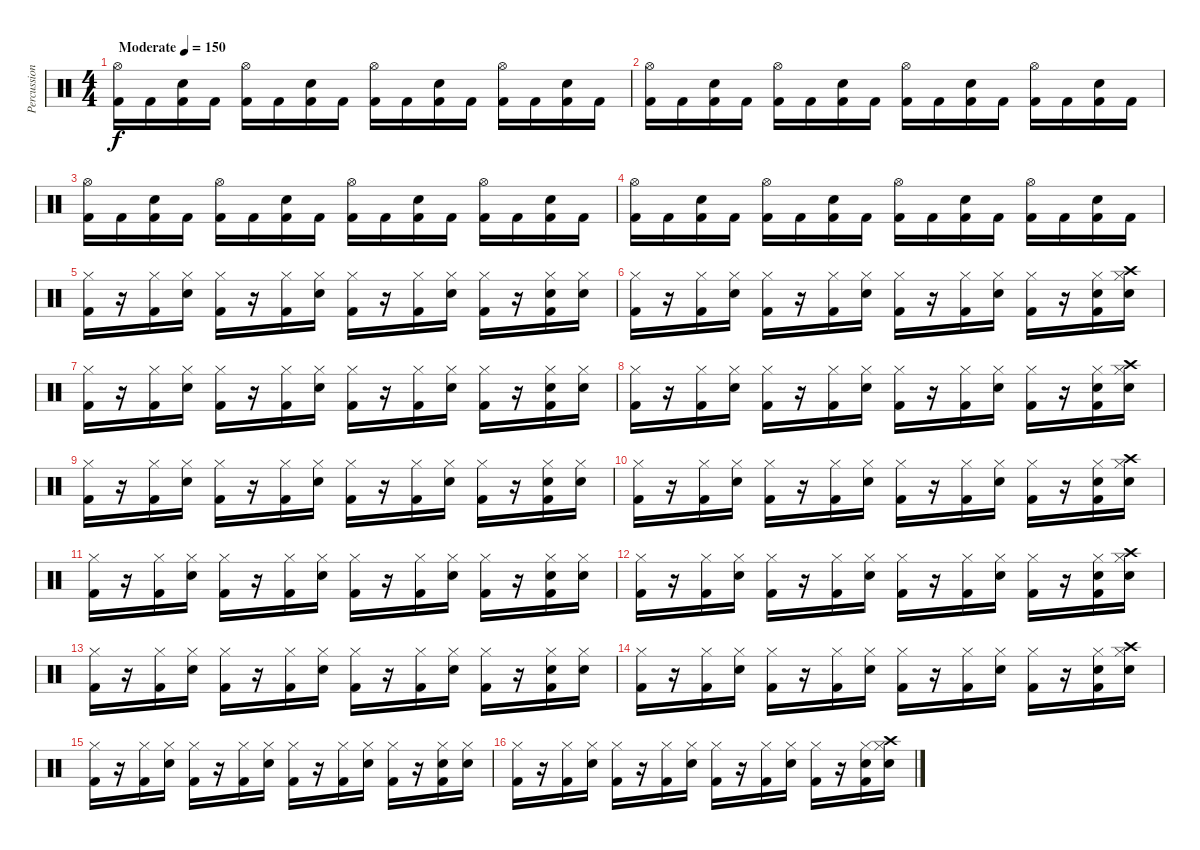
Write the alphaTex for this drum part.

\track ("Percussions" "Percussion") {instrument percussion}
\staff {score}
\articulation defaults
\ts (4 4)
\tempo (150 "Moderate")
\clef neutral
\ks c
("Hi-Hat (open)" "Kick (hit) 2").16{dy f} "Kick (hit) 2".16 ("Snare (hit) 2" "Kick (hit) 2").16 "Kick (hit) 2".16 ("Hi-Hat (open)" "Kick (hit) 2").16 "Kick (hit) 2".16 ("Snare (hit) 2" "Kick (hit) 2").16 "Kick (hit) 2".16 ("Hi-Hat (open)" "Kick (hit) 2").16 "Kick (hit) 2".16 ("Snare (hit) 2" "Kick (hit) 2").16 "Kick (hit) 2".16 ("Hi-Hat (open)" "Kick (hit) 2").16 "Kick (hit) 2".16 ("Snare (hit) 2" "Kick (hit) 2").16 "Kick (hit) 2".16 |
("Hi-Hat (open)" "Kick (hit) 2").16 "Kick (hit) 2".16 ("Snare (hit) 2" "Kick (hit) 2").16 "Kick (hit) 2".16 ("Hi-Hat (open)" "Kick (hit) 2").16 "Kick (hit) 2".16 ("Snare (hit) 2" "Kick (hit) 2").16 "Kick (hit) 2".16 ("Hi-Hat (open)" "Kick (hit) 2").16 "Kick (hit) 2".16 ("Snare (hit) 2" "Kick (hit) 2").16 "Kick (hit) 2".16 ("Hi-Hat (open)" "Kick (hit) 2").16 "Kick (hit) 2".16 ("Snare (hit) 2" "Kick (hit) 2").16 "Kick (hit) 2".16 |
("Hi-Hat (open)" "Kick (hit) 2").16 "Kick (hit) 2".16 ("Snare (hit) 2" "Kick (hit) 2").16 "Kick (hit) 2".16 ("Hi-Hat (open)" "Kick (hit) 2").16 "Kick (hit) 2".16 ("Snare (hit) 2" "Kick (hit) 2").16 "Kick (hit) 2".16 ("Hi-Hat (open)" "Kick (hit) 2").16 "Kick (hit) 2".16 ("Snare (hit) 2" "Kick (hit) 2").16 "Kick (hit) 2".16 ("Hi-Hat (open)" "Kick (hit) 2").16 "Kick (hit) 2".16 ("Snare (hit) 2" "Kick (hit) 2").16 "Kick (hit) 2".16 |
("Hi-Hat (open)" "Kick (hit) 2").16 "Kick (hit) 2".16 ("Snare (hit) 2" "Kick (hit) 2").16 "Kick (hit) 2".16 ("Hi-Hat (open)" "Kick (hit) 2").16 "Kick (hit) 2".16 ("Snare (hit) 2" "Kick (hit) 2").16 "Kick (hit) 2".16 ("Hi-Hat (open)" "Kick (hit) 2").16 "Kick (hit) 2".16 ("Snare (hit) 2" "Kick (hit) 2").16 "Kick (hit) 2".16 ("Hi-Hat (open)" "Kick (hit) 2").16 "Kick (hit) 2".16 ("Snare (hit) 2" "Kick (hit) 2").16 "Kick (hit) 2".16 |
("Hi-Hat (closed)" "Kick (hit) 2").16 r.16 ("Hi-Hat (closed)" "Kick (hit) 2").16 ("Hi-Hat (closed)" "Snare (hit) 2").16 ("Hi-Hat (closed)" "Kick (hit) 2").16 r.16 ("Hi-Hat (closed)" "Kick (hit) 2").16 ("Hi-Hat (closed)" "Snare (hit) 2").16 ("Hi-Hat (closed)" "Kick (hit) 2").16 r.16 ("Hi-Hat (closed)" "Kick (hit) 2").16 ("Hi-Hat (closed)" "Snare (hit) 2").16 ("Hi-Hat (closed)" "Kick (hit) 2").16 r.16 ("Hi-Hat (closed)" "Snare (hit) 2" "Kick (hit) 2").16 ("Hi-Hat (closed)" "Snare (hit) 2").16 |
("Hi-Hat (closed)" "Kick (hit) 2").16 r.16 ("Hi-Hat (closed)" "Kick (hit) 2").16 ("Hi-Hat (closed)" "Snare (hit) 2").16 ("Hi-Hat (closed)" "Kick (hit) 2").16 r.16 ("Hi-Hat (closed)" "Kick (hit) 2").16 ("Hi-Hat (closed)" "Snare (hit) 2").16 ("Hi-Hat (closed)" "Kick (hit) 2").16 r.16 ("Hi-Hat (closed)" "Kick (hit) 2").16 ("Hi-Hat (closed)" "Snare (hit) 2").16 ("Hi-Hat (closed)" "Kick (hit) 2").16 r.16 ("Hi-Hat (closed)" "Snare (hit) 2" "Kick (hit) 2").16 ("Hi-Hat (closed)" "Crash high (hit)" "Snare (hit) 2").16 |
("Hi-Hat (closed)" "Kick (hit) 2").16 r.16 ("Hi-Hat (closed)" "Kick (hit) 2").16 ("Hi-Hat (closed)" "Snare (hit) 2").16 ("Hi-Hat (closed)" "Kick (hit) 2").16 r.16 ("Hi-Hat (closed)" "Kick (hit) 2").16 ("Hi-Hat (closed)" "Snare (hit) 2").16 ("Hi-Hat (closed)" "Kick (hit) 2").16 r.16 ("Hi-Hat (closed)" "Kick (hit) 2").16 ("Hi-Hat (closed)" "Snare (hit) 2").16 ("Hi-Hat (closed)" "Kick (hit) 2").16 r.16 ("Hi-Hat (closed)" "Snare (hit) 2" "Kick (hit) 2").16 ("Hi-Hat (closed)" "Snare (hit) 2").16 |
("Hi-Hat (closed)" "Kick (hit) 2").16 r.16 ("Hi-Hat (closed)" "Kick (hit) 2").16 ("Hi-Hat (closed)" "Snare (hit) 2").16 ("Hi-Hat (closed)" "Kick (hit) 2").16 r.16 ("Hi-Hat (closed)" "Kick (hit) 2").16 ("Hi-Hat (closed)" "Snare (hit) 2").16 ("Hi-Hat (closed)" "Kick (hit) 2").16 r.16 ("Hi-Hat (closed)" "Kick (hit) 2").16 ("Hi-Hat (closed)" "Snare (hit) 2").16 ("Hi-Hat (closed)" "Kick (hit) 2").16 r.16 ("Hi-Hat (closed)" "Snare (hit) 2" "Kick (hit) 2").16 ("Hi-Hat (closed)" "Crash high (hit)" "Snare (hit) 2").16 |
("Hi-Hat (closed)" "Kick (hit) 2").16 r.16 ("Hi-Hat (closed)" "Kick (hit) 2").16 ("Hi-Hat (closed)" "Snare (hit) 2").16 ("Hi-Hat (closed)" "Kick (hit) 2").16 r.16 ("Hi-Hat (closed)" "Kick (hit) 2").16 ("Hi-Hat (closed)" "Snare (hit) 2").16 ("Hi-Hat (closed)" "Kick (hit) 2").16 r.16 ("Hi-Hat (closed)" "Kick (hit) 2").16 ("Hi-Hat (closed)" "Snare (hit) 2").16 ("Hi-Hat (closed)" "Kick (hit) 2").16 r.16 ("Hi-Hat (closed)" "Snare (hit) 2" "Kick (hit) 2").16 ("Hi-Hat (closed)" "Snare (hit) 2").16 |
("Hi-Hat (closed)" "Kick (hit) 2").16 r.16 ("Hi-Hat (closed)" "Kick (hit) 2").16 ("Hi-Hat (closed)" "Snare (hit) 2").16 ("Hi-Hat (closed)" "Kick (hit) 2").16 r.16 ("Hi-Hat (closed)" "Kick (hit) 2").16 ("Hi-Hat (closed)" "Snare (hit) 2").16 ("Hi-Hat (closed)" "Kick (hit) 2").16 r.16 ("Hi-Hat (closed)" "Kick (hit) 2").16 ("Hi-Hat (closed)" "Snare (hit) 2").16 ("Hi-Hat (closed)" "Kick (hit) 2").16 r.16 ("Hi-Hat (closed)" "Snare (hit) 2" "Kick (hit) 2").16 ("Hi-Hat (closed)" "Crash high (hit)" "Snare (hit) 2").16 |
("Hi-Hat (closed)" "Kick (hit) 2").16 r.16 ("Hi-Hat (closed)" "Kick (hit) 2").16 ("Hi-Hat (closed)" "Snare (hit) 2").16 ("Hi-Hat (closed)" "Kick (hit) 2").16 r.16 ("Hi-Hat (closed)" "Kick (hit) 2").16 ("Hi-Hat (closed)" "Snare (hit) 2").16 ("Hi-Hat (closed)" "Kick (hit) 2").16 r.16 ("Hi-Hat (closed)" "Kick (hit) 2").16 ("Hi-Hat (closed)" "Snare (hit) 2").16 ("Hi-Hat (closed)" "Kick (hit) 2").16 r.16 ("Hi-Hat (closed)" "Snare (hit) 2" "Kick (hit) 2").16 ("Hi-Hat (closed)" "Snare (hit) 2").16 |
("Hi-Hat (closed)" "Kick (hit) 2").16 r.16 ("Hi-Hat (closed)" "Kick (hit) 2").16 ("Hi-Hat (closed)" "Snare (hit) 2").16 ("Hi-Hat (closed)" "Kick (hit) 2").16 r.16 ("Hi-Hat (closed)" "Kick (hit) 2").16 ("Hi-Hat (closed)" "Snare (hit) 2").16 ("Hi-Hat (closed)" "Kick (hit) 2").16 r.16 ("Hi-Hat (closed)" "Kick (hit) 2").16 ("Hi-Hat (closed)" "Snare (hit) 2").16 ("Hi-Hat (closed)" "Kick (hit) 2").16 r.16 ("Hi-Hat (closed)" "Snare (hit) 2" "Kick (hit) 2").16 ("Hi-Hat (closed)" "Crash high (hit)" "Snare (hit) 2").16 |
("Hi-Hat (closed)" "Kick (hit) 2").16 r.16 ("Hi-Hat (closed)" "Kick (hit) 2").16 ("Hi-Hat (closed)" "Snare (hit) 2").16 ("Hi-Hat (closed)" "Kick (hit) 2").16 r.16 ("Hi-Hat (closed)" "Kick (hit) 2").16 ("Hi-Hat (closed)" "Snare (hit) 2").16 ("Hi-Hat (closed)" "Kick (hit) 2").16 r.16 ("Hi-Hat (closed)" "Kick (hit) 2").16 ("Hi-Hat (closed)" "Snare (hit) 2").16 ("Hi-Hat (closed)" "Kick (hit) 2").16 r.16 ("Hi-Hat (closed)" "Snare (hit) 2" "Kick (hit) 2").16 ("Hi-Hat (closed)" "Snare (hit) 2").16 |
("Hi-Hat (closed)" "Kick (hit) 2").16 r.16 ("Hi-Hat (closed)" "Kick (hit) 2").16 ("Hi-Hat (closed)" "Snare (hit) 2").16 ("Hi-Hat (closed)" "Kick (hit) 2").16 r.16 ("Hi-Hat (closed)" "Kick (hit) 2").16 ("Hi-Hat (closed)" "Snare (hit) 2").16 ("Hi-Hat (closed)" "Kick (hit) 2").16 r.16 ("Hi-Hat (closed)" "Kick (hit) 2").16 ("Hi-Hat (closed)" "Snare (hit) 2").16 ("Hi-Hat (closed)" "Kick (hit) 2").16 r.16 ("Hi-Hat (closed)" "Snare (hit) 2" "Kick (hit) 2").16 ("Hi-Hat (closed)" "Crash high (hit)" "Snare (hit) 2").16 |
("Hi-Hat (closed)" "Kick (hit) 2").16 r.16 ("Hi-Hat (closed)" "Kick (hit) 2").16 ("Hi-Hat (closed)" "Snare (hit) 2").16 ("Hi-Hat (closed)" "Kick (hit) 2").16 r.16 ("Hi-Hat (closed)" "Kick (hit) 2").16 ("Hi-Hat (closed)" "Snare (hit) 2").16 ("Hi-Hat (closed)" "Kick (hit) 2").16 r.16 ("Hi-Hat (closed)" "Kick (hit) 2").16 ("Hi-Hat (closed)" "Snare (hit) 2").16 ("Hi-Hat (closed)" "Kick (hit) 2").16 r.16 ("Hi-Hat (closed)" "Snare (hit) 2" "Kick (hit) 2").16 ("Hi-Hat (closed)" "Snare (hit) 2").16 |
("Hi-Hat (closed)" "Kick (hit) 2").16 r.16 ("Hi-Hat (closed)" "Kick (hit) 2").16 ("Hi-Hat (closed)" "Snare (hit) 2").16 ("Hi-Hat (closed)" "Kick (hit) 2").16 r.16 ("Hi-Hat (closed)" "Kick (hit) 2").16 ("Hi-Hat (closed)" "Snare (hit) 2").16 ("Hi-Hat (closed)" "Kick (hit) 2").16 r.16 ("Hi-Hat (closed)" "Kick (hit) 2").16 ("Hi-Hat (closed)" "Snare (hit) 2").16 ("Hi-Hat (closed)" "Kick (hit) 2").16 r.16 ("Hi-Hat (closed)" "Snare (hit) 2" "Kick (hit) 2").16 ("Hi-Hat (closed)" "Crash high (hit)" "Snare (hit) 2").16
